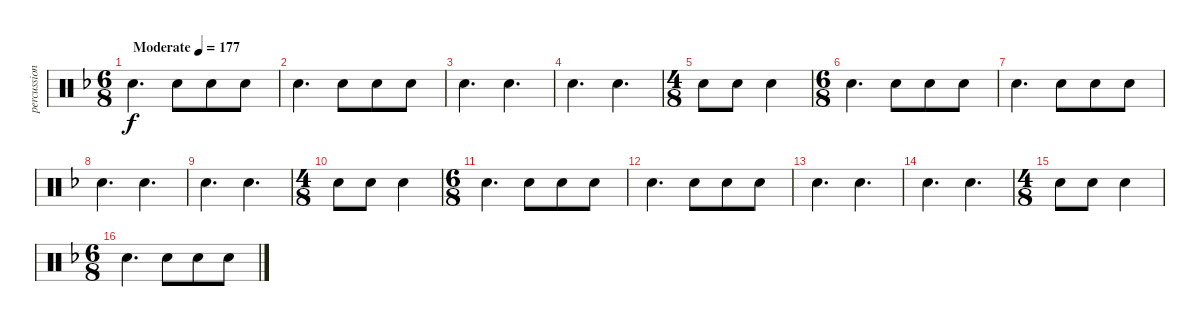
\track ("percussion" "percussion") {instrument percussion}
\staff {score}
\articulation defaults
\ts (6 8)
\tempo (177 "Moderate")
\clef neutral
\ks dminor "Snare (hit) 2".4{d dy f} "Snare (hit) 2".8 "Snare (hit) 2".8 "Snare (hit) 2".8
|
"Snare (hit) 2".4{d} "Snare (hit) 2".8 "Snare (hit) 2".8 "Snare (hit) 2".8 |
"Snare (hit) 2".4{d} "Snare (hit) 2".4{d} |
"Snare (hit) 2".4{d} "Snare (hit) 2".4{d} |
\ts (4 8)
"Snare (hit) 2".8{beam merge} "Snare (hit) 2".8 "Snare (hit) 2".4 |
\ts (6 8)
"Snare (hit) 2".4{d} "Snare (hit) 2".8 "Snare (hit) 2".8 "Snare (hit) 2".8 |
"Snare (hit) 2".4{d} "Snare (hit) 2".8 "Snare (hit) 2".8 "Snare (hit) 2".8 |
"Snare (hit) 2".4{d} "Snare (hit) 2".4{d} |
"Snare (hit) 2".4{d} "Snare (hit) 2".4{d} |
\ts (4 8)
"Snare (hit) 2".8{beam merge} "Snare (hit) 2".8 "Snare (hit) 2".4 |
\ts (6 8)
"Snare (hit) 2".4{d} "Snare (hit) 2".8 "Snare (hit) 2".8 "Snare (hit) 2".8 |
"Snare (hit) 2".4{d} "Snare (hit) 2".8 "Snare (hit) 2".8 "Snare (hit) 2".8 |
"Snare (hit) 2".4{d} "Snare (hit) 2".4{d} |
"Snare (hit) 2".4{d} "Snare (hit) 2".4{d} |
\ts (4 8)
"Snare (hit) 2".8{beam merge} "Snare (hit) 2".8 "Snare (hit) 2".4 |
\ts (6 8)
"Snare (hit) 2".4{d} "Snare (hit) 2".8 "Snare (hit) 2".8 "Snare (hit) 2".8
